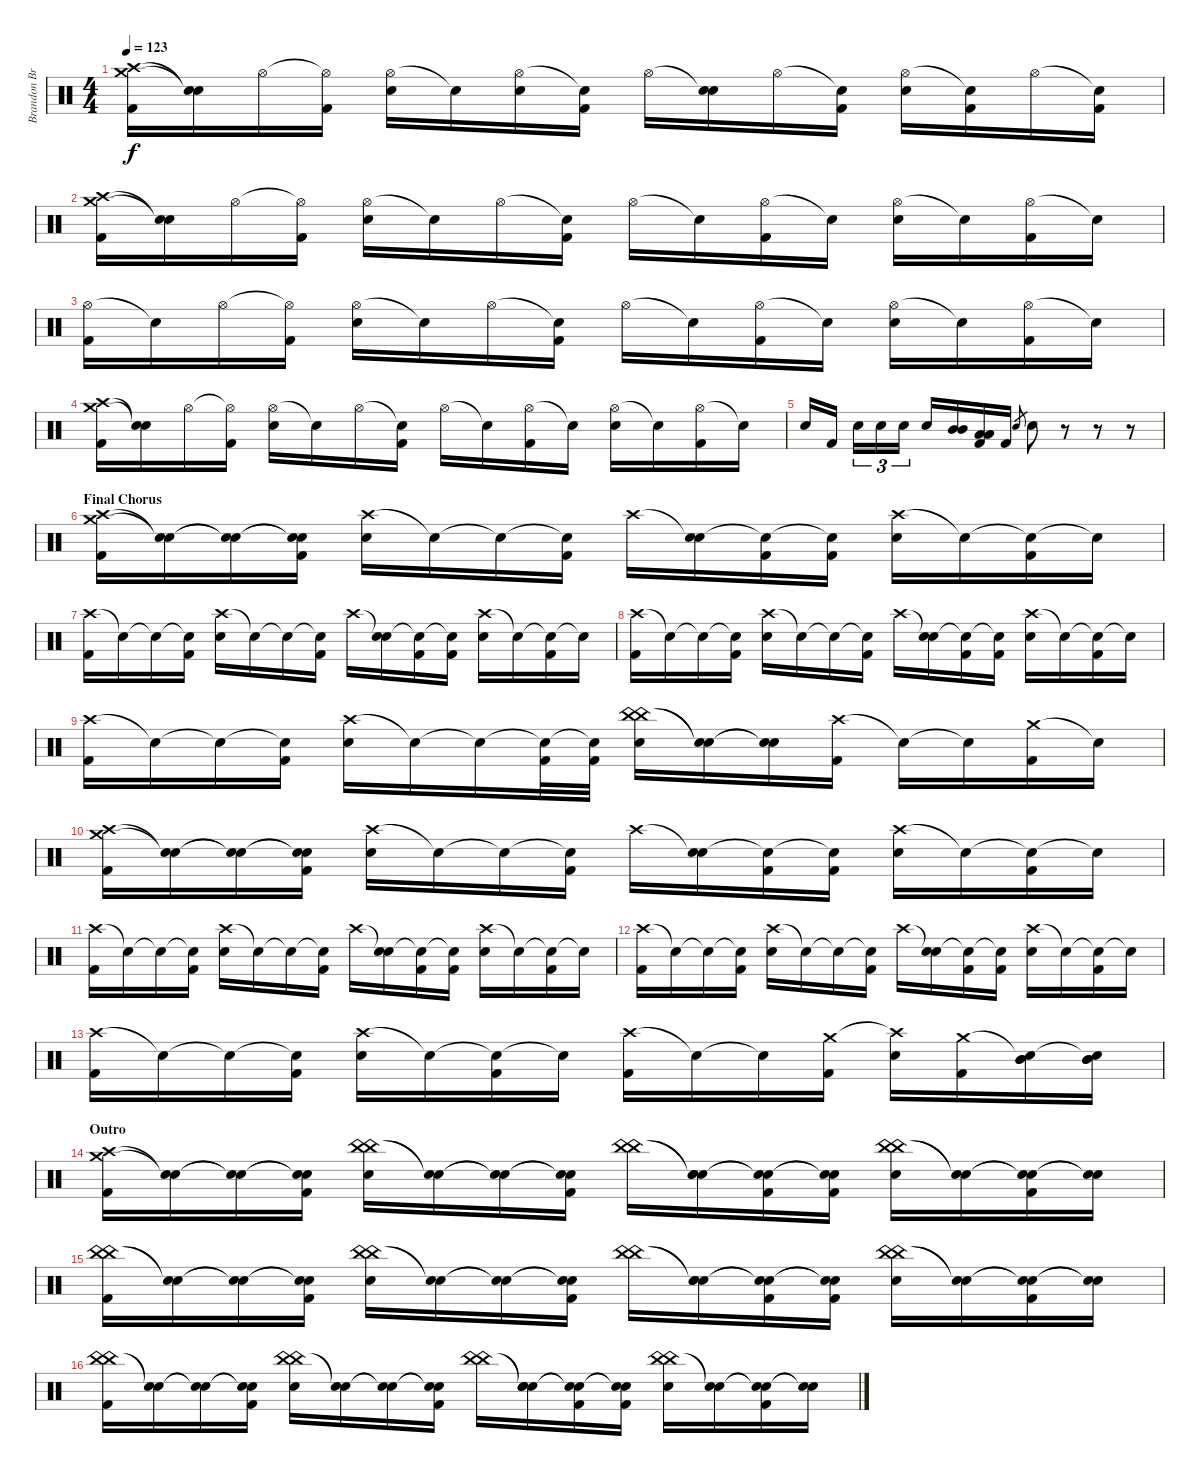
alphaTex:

\track ("Brandon Brown (Drums)" "Brandon Br") {instrument percussion}
\staff {score}
\articulation defaults
\ts (4 4)
\tempo 123
\clef neutral
\ks c
("Crash high (hit)" "Crash medium (hit)" "Kick (hit) 2").16{dy f} ("Snare (hit)"{t} "Snare (hit)"{t}).16 "Hi-Hat (open)".16 ("Hi-Hat (open)"{t} "Kick (hit) 2").16 ("Hi-Hat (open)" "Electric Snare (hit)").16 "Snare (hit)"{t}.16 ("Hi-Hat (open)" "Electric Snare (hit)").16 ("Snare (hit)"{t} "Kick (hit) 2").16 "Hi-Hat (open)".16 ("Snare (hit)"{t} "Electric Snare (hit)").16 "Hi-Hat (open)".16 ("Snare (hit)"{t} "Kick (hit) 2").16 ("Hi-Hat (open)" "Electric Snare (hit)").16 ("Snare (hit)"{t} "Kick (hit) 2").16 "Hi-Hat (open)".16 ("Snare (hit)"{t} "Kick (hit) 2").16 |
("Crash high (hit)" "Crash medium (hit)" "Kick (hit) 2").16 ("Snare (hit)"{t} "Snare (hit)"{t}).16 "Hi-Hat (open)".16 ("Hi-Hat (open)"{t} "Kick (hit) 2").16 ("Hi-Hat (open)" "Electric Snare (hit)").16 "Snare (hit)"{t}.16 "Hi-Hat (open)".16 ("Snare (hit)"{t} "Kick (hit) 2").16 "Hi-Hat (open)".16 "Snare (hit)"{t}.16 ("Hi-Hat (open)" "Kick (hit) 2").16 "Snare (hit)"{t}.16 ("Hi-Hat (open)" "Electric Snare (hit)").16 "Snare (hit)"{t}.16 ("Hi-Hat (open)" "Kick (hit) 2").16 "Snare (hit)"{t}.16 |
("Hi-Hat (open)" "Kick (hit) 2").16 "Snare (hit)"{t}.16 "Hi-Hat (open)".16 ("Hi-Hat (open)"{t} "Kick (hit) 2").16 ("Hi-Hat (open)" "Electric Snare (hit)").16 "Snare (hit)"{t}.16 "Hi-Hat (open)".16 ("Snare (hit)"{t} "Kick (hit) 2").16 "Hi-Hat (open)".16 "Snare (hit)"{t}.16 ("Hi-Hat (open)" "Kick (hit) 2").16 "Snare (hit)"{t}.16 ("Hi-Hat (open)" "Electric Snare (hit)").16 "Snare (hit)"{t}.16 ("Hi-Hat (open)" "Kick (hit) 2").16 "Snare (hit)"{t}.16 |
("Crash high (hit)" "Crash medium (hit)" "Kick (hit) 2").16 ("Snare (hit)"{t} "Snare (hit)"{t}).16 "Hi-Hat (open)".16 ("Hi-Hat (open)"{t} "Kick (hit) 2").16 ("Hi-Hat (open)" "Electric Snare (hit)").16 "Snare (hit)"{t}.16 "Hi-Hat (open)".16 ("Snare (hit)"{t} "Kick (hit) 2").16 "Hi-Hat (open)".16 "Snare (hit)"{t}.16 ("Hi-Hat (open)" "Kick (hit) 2").16 "Snare (hit)"{t}.16 ("Hi-Hat (open)" "Electric Snare (hit)").16 "Snare (hit)"{t}.16 ("Hi-Hat (open)" "Kick (hit) 2").16 "Snare (hit)"{t}.16 |
"Electric Snare (hit)".16 "Kick (hit) 2".16 "Electric Snare (hit)".16{tu (3 2)} "Electric Snare (hit)".16{tu (3 2)} "Electric Snare (hit)".16{tu (3 2)} "Electric Snare (hit)".16 ("Mid Tom (hit)" "Mid Tom (hit)").16 ("Low Tom (hit)" "Low Tom (hit)" "Kick (hit) 2").16 "Kick (hit) 2".16 "Electric Snare (hit)".8{gr} "Electric Snare (hit)".8 r.8 r.8 r.8 |
\section ("" "Final Chorus")
("Crash high (hit)" "Crash medium (hit)" "Kick (hit) 2").16 ("Snare (hit)"{t} "Snare (hit)"{t}).16 ("Snare (hit)"{t} "Snare (hit)"{t}).16 ("Snare (hit)"{t} "Snare (hit)"{t} "Kick (hit) 2").16 ("Crash high (hit)" "Electric Snare (hit)").16 "Snare (hit)"{t}.16 "Snare (hit)"{t}.16 ("Snare (hit)"{t} "Kick (hit) 2").16 "Crash high (hit)".16 ("Snare (hit)"{t} "Electric Snare (hit)").16 ("Snare (hit)"{t} "Kick (hit) 2").16 ("Snare (hit)"{t} "Kick (hit) 2").16 ("Crash high (hit)" "Electric Snare (hit)").16 "Snare (hit)"{t}.16 ("Snare (hit)"{t} "Kick (hit) 2").16 "Snare (hit)"{t}.16 |
("Crash high (hit)" "Kick (hit) 2").16 "Snare (hit)"{t}.16 "Snare (hit)"{t}.16 ("Snare (hit)"{t} "Kick (hit) 2").16 ("Crash high (hit)" "Electric Snare (hit)").16 "Snare (hit)"{t}.16 "Snare (hit)"{t}.16 ("Snare (hit)"{t} "Kick (hit) 2").16 "Crash high (hit)".16 ("Snare (hit)"{t} "Electric Snare (hit)").16 ("Snare (hit)"{t} "Kick (hit) 2").16 ("Snare (hit)"{t} "Kick (hit) 2").16 ("Crash high (hit)" "Electric Snare (hit)").16 "Snare (hit)"{t}.16 ("Snare (hit)"{t} "Kick (hit) 2").16 "Snare (hit)"{t}.16 |
("Crash high (hit)" "Kick (hit) 2").16 "Snare (hit)"{t}.16 "Snare (hit)"{t}.16 ("Snare (hit)"{t} "Kick (hit) 2").16 ("Crash high (hit)" "Electric Snare (hit)").16 "Snare (hit)"{t}.16 "Snare (hit)"{t}.16 ("Snare (hit)"{t} "Kick (hit) 2").16 "Crash high (hit)".16 ("Snare (hit)"{t} "Electric Snare (hit)").16 ("Snare (hit)"{t} "Kick (hit) 2").16 ("Snare (hit)"{t} "Kick (hit) 2").16 ("Crash high (hit)" "Electric Snare (hit)").16 "Snare (hit)"{t}.16 ("Snare (hit)"{t} "Kick (hit) 2").16 "Snare (hit)"{t}.16 |
("Crash high (hit)" "Kick (hit) 2").16 "Snare (hit)"{t}.16 "Snare (hit)"{t}.16 ("Snare (hit)"{t} "Kick (hit) 2").16 ("Crash high (hit)" "Electric Snare (hit)").16 "Snare (hit)"{t}.16 "Snare (hit)"{t}.16 ("Snare (hit)"{t} "Kick (hit) 2").32 ("Snare (hit)"{t} "Kick (hit) 2").32 ("China (hit)" "China (hit)" "Electric Snare (hit)").16 ("Snare (hit)"{t} "Snare (hit)"{t}).16 ("Snare (hit)"{t} "Snare (hit)"{t}).16 ("Crash high (hit)" "Kick (hit) 2").16 "Snare (hit)"{t}.16 "Snare (hit)"{t}.16 ("Crash medium (hit)" "Kick (hit) 2").16 "Snare (hit)"{t}.16 |
("Crash high (hit)" "Crash medium (hit)" "Kick (hit) 2").16 ("Snare (hit)"{t} "Snare (hit)"{t}).16 ("Snare (hit)"{t} "Snare (hit)"{t}).16 ("Snare (hit)"{t} "Snare (hit)"{t} "Kick (hit) 2").16 ("Crash high (hit)" "Electric Snare (hit)").16 "Snare (hit)"{t}.16 "Snare (hit)"{t}.16 ("Snare (hit)"{t} "Kick (hit) 2").16 "Crash high (hit)".16 ("Snare (hit)"{t} "Electric Snare (hit)").16 ("Snare (hit)"{t} "Kick (hit) 2").16 ("Snare (hit)"{t} "Kick (hit) 2").16 ("Crash high (hit)" "Electric Snare (hit)").16 "Snare (hit)"{t}.16 ("Snare (hit)"{t} "Kick (hit) 2").16 "Snare (hit)"{t}.16 |
("Crash high (hit)" "Kick (hit) 2").16 "Snare (hit)"{t}.16 "Snare (hit)"{t}.16 ("Snare (hit)"{t} "Kick (hit) 2").16 ("Crash high (hit)" "Electric Snare (hit)").16 "Snare (hit)"{t}.16 "Snare (hit)"{t}.16 ("Snare (hit)"{t} "Kick (hit) 2").16 "Crash high (hit)".16 ("Snare (hit)"{t} "Electric Snare (hit)").16 ("Snare (hit)"{t} "Kick (hit) 2").16 ("Snare (hit)"{t} "Kick (hit) 2").16 ("Crash high (hit)" "Electric Snare (hit)").16 "Snare (hit)"{t}.16 ("Snare (hit)"{t} "Kick (hit) 2").16 "Snare (hit)"{t}.16 |
("Crash high (hit)" "Kick (hit) 2").16 "Snare (hit)"{t}.16 "Snare (hit)"{t}.16 ("Snare (hit)"{t} "Kick (hit) 2").16 ("Crash high (hit)" "Electric Snare (hit)").16 "Snare (hit)"{t}.16 "Snare (hit)"{t}.16 ("Snare (hit)"{t} "Kick (hit) 2").16 "Crash high (hit)".16 ("Snare (hit)"{t} "Electric Snare (hit)").16 ("Snare (hit)"{t} "Kick (hit) 2").16 ("Snare (hit)"{t} "Kick (hit) 2").16 ("Crash high (hit)" "Electric Snare (hit)").16 "Snare (hit)"{t}.16 ("Snare (hit)"{t} "Kick (hit) 2").16 "Snare (hit)"{t}.16 |
("Crash high (hit)" "Kick (hit) 2").16 "Snare (hit)"{t}.16 "Snare (hit)"{t}.16 ("Snare (hit)"{t} "Kick (hit) 2").16 ("Crash high (hit)" "Electric Snare (hit)").16 "Snare (hit)"{t}.16 ("Snare (hit)"{t} "Kick (hit) 2").16 "Snare (hit)"{t}.16 ("Crash high (hit)" "Kick (hit) 2").16 "Snare (hit)"{t}.16 "Snare (hit)"{t}.16 ("Crash medium (hit)" "Kick (hit) 2").16 ("Crash high (hit)"{t} "Electric Snare (hit)").16 ("Crash medium (hit)" "Kick (hit) 2").16 ("Snare (hit)"{t} "Mid Tom (hit)" "Mid Tom (hit)").16 ("Snare (hit)"{t} "Mid Tom (hit)" "Mid Tom (hit)").16 |
\section ("" "Outro")
("Crash high (hit)" "Crash medium (hit)" "Kick (hit) 2").16 ("Snare (hit)"{t} "Snare (hit)"{t}).16 ("Snare (hit)"{t} "Snare (hit)"{t}).16 ("Snare (hit)"{t} "Snare (hit)"{t} "Kick (hit) 2").16 ("China (hit)" "China (hit)" "Electric Snare (hit)").16 ("Snare (hit)"{t} "Snare (hit)"{t}).16 ("Snare (hit)"{t} "Snare (hit)"{t}).16 ("Snare (hit)"{t} "Snare (hit)"{t} "Kick (hit) 2").16 ("China (hit)" "China (hit)").16 ("Snare (hit)"{t} "Snare (hit)"{t} "Electric Snare (hit)").16 ("Snare (hit)"{t} "Snare (hit)"{t} "Kick (hit) 2").16 ("Snare (hit)"{t} "Snare (hit)"{t} "Kick (hit) 2").16 ("China (hit)" "China (hit)" "Electric Snare (hit)").16 ("Snare (hit)"{t} "Snare (hit)"{t}).16 ("Snare (hit)"{t} "Snare (hit)"{t} "Kick (hit) 2").16 ("Snare (hit)"{t} "Snare (hit)"{t}).16 |
("China (hit)" "China (hit)" "Kick (hit) 2").16 ("Snare (hit)"{t} "Snare (hit)"{t}).16 ("Snare (hit)"{t} "Snare (hit)"{t}).16 ("Snare (hit)"{t} "Snare (hit)"{t} "Kick (hit) 2").16 ("China (hit)" "China (hit)" "Electric Snare (hit)").16 ("Snare (hit)"{t} "Snare (hit)"{t}).16 ("Snare (hit)"{t} "Snare (hit)"{t}).16 ("Snare (hit)"{t} "Snare (hit)"{t} "Kick (hit) 2").16 ("China (hit)" "China (hit)").16 ("Snare (hit)"{t} "Snare (hit)"{t} "Electric Snare (hit)").16 ("Snare (hit)"{t} "Snare (hit)"{t} "Kick (hit) 2").16 ("Snare (hit)"{t} "Snare (hit)"{t} "Kick (hit) 2").16 ("China (hit)" "China (hit)" "Electric Snare (hit)").16 ("Snare (hit)"{t} "Snare (hit)"{t}).16 ("Snare (hit)"{t} "Snare (hit)"{t} "Kick (hit) 2").16 ("Snare (hit)"{t} "Snare (hit)"{t}).16 |
("China (hit)" "China (hit)" "Kick (hit) 2").16 ("Snare (hit)"{t} "Snare (hit)"{t}).16 ("Snare (hit)"{t} "Snare (hit)"{t}).16 ("Snare (hit)"{t} "Snare (hit)"{t} "Kick (hit) 2").16 ("China (hit)" "China (hit)" "Electric Snare (hit)").16 ("Snare (hit)"{t} "Snare (hit)"{t}).16 ("Snare (hit)"{t} "Snare (hit)"{t}).16 ("Snare (hit)"{t} "Snare (hit)"{t} "Kick (hit) 2").16 ("China (hit)" "China (hit)").16 ("Snare (hit)"{t} "Snare (hit)"{t} "Electric Snare (hit)").16 ("Snare (hit)"{t} "Snare (hit)"{t} "Kick (hit) 2").16 ("Snare (hit)"{t} "Snare (hit)"{t} "Kick (hit) 2").16 ("China (hit)" "China (hit)" "Electric Snare (hit)").16 ("Snare (hit)"{t} "Snare (hit)"{t}).16 ("Snare (hit)"{t} "Snare (hit)"{t} "Kick (hit) 2").16 ("Snare (hit)"{t} "Snare (hit)"{t}).16
